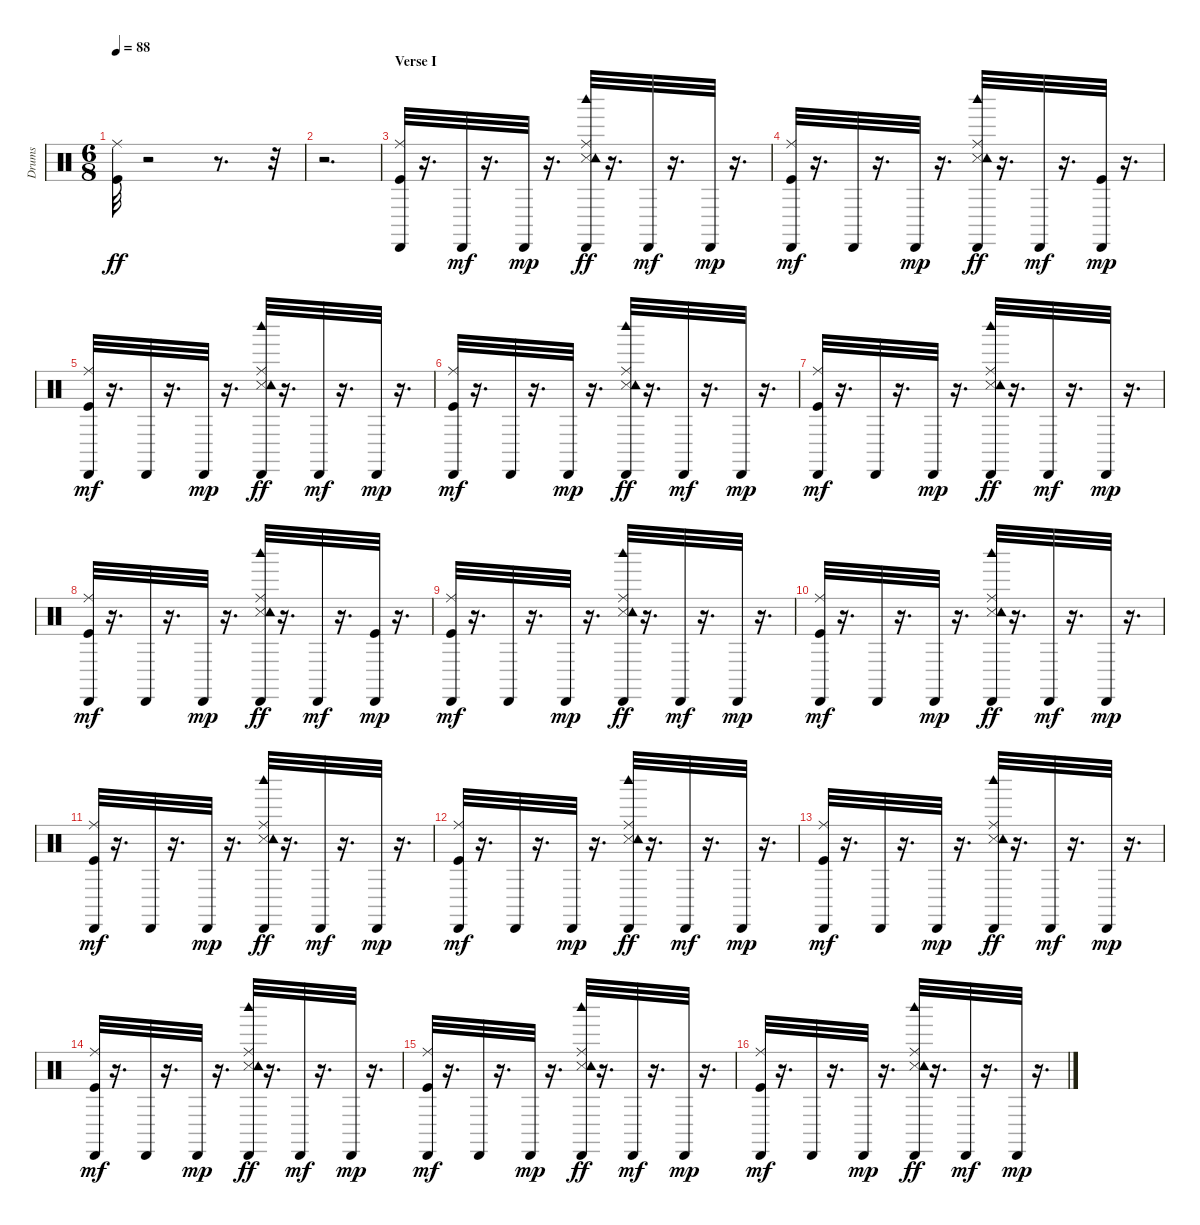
\track ("Drums               " "Drums     ") {instrument percussion}
\staff {score}
\articulation defaults
\ts (6 8)
\tempo 88
\clef neutral
\ks c
("Kick (hit)" "Ride (middle)").32{dy ff} r.2 r.8{d} r.32 |
r.2{d} |
\section ("" "Verse I")
("Kick (hit)" "Ride (middle)" "Cabasa (hit)").32 r.16{d} "Cabasa (hit)".32{dy mf} r.16{d} "Cabasa (hit)".32{dy mp} r.16{d} ("Snare (side stick) 3" "Ride (middle)" "Tambourine (hit)" "Cabasa (hit)" "Woodblock high (hit)").32{dy ff} r.16{d} "Cabasa (hit)".32{dy mf} r.16{d} "Cabasa (hit)".32{dy mp} r.16{d} |
("Kick (hit)" "Ride (middle)" "Cabasa (hit)").32{dy mf} r.16{d} "Cabasa (hit)".32 r.16{d} "Cabasa (hit)".32{dy mp} r.16{d} ("Snare (side stick) 3" "Ride (middle)" "Tambourine (hit)" "Cabasa (hit)" "Woodblock high (hit)").32{dy ff} r.16{d} "Cabasa (hit)".32{dy mf} r.16{d} ("Kick (hit)" "Cabasa (hit)").32{dy mp} r.16{d} |
("Kick (hit)" "Ride (middle)" "Cabasa (hit)").32{dy mf} r.16{d} "Cabasa (hit)".32 r.16{d} "Cabasa (hit)".32{dy mp} r.16{d} ("Snare (side stick) 3" "Ride (middle)" "Tambourine (hit)" "Cabasa (hit)" "Woodblock high (hit)").32{dy ff} r.16{d} "Cabasa (hit)".32{dy mf} r.16{d} "Cabasa (hit)".32{dy mp} r.16{d} |
("Kick (hit)" "Ride (middle)" "Cabasa (hit)").32{dy mf} r.16{d} "Cabasa (hit)".32 r.16{d} "Cabasa (hit)".32{dy mp} r.16{d} ("Snare (side stick) 3" "Ride (middle)" "Tambourine (hit)" "Cabasa (hit)" "Woodblock high (hit)").32{dy ff} r.16{d} "Cabasa (hit)".32{dy mf} r.16{d} "Cabasa (hit)".32{dy mp} r.16{d} |
("Kick (hit)" "Ride (middle)" "Cabasa (hit)").32{dy mf} r.16{d} "Cabasa (hit)".32 r.16{d} "Cabasa (hit)".32{dy mp} r.16{d} ("Snare (side stick) 3" "Ride (middle)" "Tambourine (hit)" "Cabasa (hit)" "Woodblock high (hit)").32{dy ff} r.16{d} "Cabasa (hit)".32{dy mf} r.16{d} "Cabasa (hit)".32{dy mp} r.16{d} |
("Kick (hit)" "Ride (middle)" "Cabasa (hit)").32{dy mf} r.16{d} "Cabasa (hit)".32 r.16{d} "Cabasa (hit)".32{dy mp} r.16{d} ("Snare (side stick) 3" "Ride (middle)" "Tambourine (hit)" "Cabasa (hit)" "Woodblock high (hit)").32{dy ff} r.16{d} "Cabasa (hit)".32{dy mf} r.16{d} ("Kick (hit)" "Cabasa (hit)").32{dy mp} r.16{d} |
("Kick (hit)" "Ride (middle)" "Cabasa (hit)").32{dy mf} r.16{d} "Cabasa (hit)".32 r.16{d} "Cabasa (hit)".32{dy mp} r.16{d} ("Snare (side stick) 3" "Ride (middle)" "Tambourine (hit)" "Cabasa (hit)" "Woodblock high (hit)").32{dy ff} r.16{d} "Cabasa (hit)".32{dy mf} r.16{d} "Cabasa (hit)".32{dy mp} r.16{d} |
("Kick (hit)" "Ride (middle)" "Cabasa (hit)").32{dy mf} r.16{d} "Cabasa (hit)".32 r.16{d} "Cabasa (hit)".32{dy mp} r.16{d} ("Snare (side stick) 3" "Ride (middle)" "Tambourine (hit)" "Cabasa (hit)" "Woodblock high (hit)").32{dy ff} r.16{d} "Cabasa (hit)".32{dy mf} r.16{d} "Cabasa (hit)".32{dy mp} r.16{d} |
("Kick (hit)" "Ride (middle)" "Cabasa (hit)").32{dy mf} r.16{d} "Cabasa (hit)".32 r.16{d} "Cabasa (hit)".32{dy mp} r.16{d} ("Snare (side stick) 3" "Ride (middle)" "Tambourine (hit)" "Cabasa (hit)" "Woodblock high (hit)").32{dy ff} r.16{d} "Cabasa (hit)".32{dy mf} r.16{d} "Cabasa (hit)".32{dy mp} r.16{d} |
("Kick (hit)" "Ride (middle)" "Cabasa (hit)").32{dy mf} r.16{d} "Cabasa (hit)".32 r.16{d} "Cabasa (hit)".32{dy mp} r.16{d} ("Snare (side stick) 3" "Ride (middle)" "Tambourine (hit)" "Cabasa (hit)" "Woodblock high (hit)").32{dy ff} r.16{d} "Cabasa (hit)".32{dy mf} r.16{d} "Cabasa (hit)".32{dy mp} r.16{d} |
("Kick (hit)" "Ride (middle)" "Cabasa (hit)").32{dy mf} r.16{d} "Cabasa (hit)".32 r.16{d} "Cabasa (hit)".32{dy mp} r.16{d} ("Snare (side stick) 3" "Ride (middle)" "Tambourine (hit)" "Cabasa (hit)" "Woodblock high (hit)").32{dy ff} r.16{d} "Cabasa (hit)".32{dy mf} r.16{d} "Cabasa (hit)".32{dy mp} r.16{d} |
("Kick (hit)" "Ride (middle)" "Cabasa (hit)").32{dy mf} r.16{d} "Cabasa (hit)".32 r.16{d} "Cabasa (hit)".32{dy mp} r.16{d} ("Snare (side stick) 3" "Ride (middle)" "Tambourine (hit)" "Cabasa (hit)" "Woodblock high (hit)").32{dy ff} r.16{d} "Cabasa (hit)".32{dy mf} r.16{d} "Cabasa (hit)".32{dy mp} r.16{d} |
("Kick (hit)" "Ride (middle)" "Cabasa (hit)").32{dy mf} r.16{d} "Cabasa (hit)".32 r.16{d} "Cabasa (hit)".32{dy mp} r.16{d} ("Snare (side stick) 3" "Ride (middle)" "Tambourine (hit)" "Cabasa (hit)" "Woodblock high (hit)").32{dy ff} r.16{d} "Cabasa (hit)".32{dy mf} r.16{d} "Cabasa (hit)".32{dy mp} r.16{d} |
("Kick (hit)" "Ride (middle)" "Cabasa (hit)").32{dy mf} r.16{d} "Cabasa (hit)".32 r.16{d} "Cabasa (hit)".32{dy mp} r.16{d} ("Snare (side stick) 3" "Ride (middle)" "Tambourine (hit)" "Cabasa (hit)" "Woodblock high (hit)").32{dy ff} r.16{d} "Cabasa (hit)".32{dy mf} r.16{d} "Cabasa (hit)".32{dy mp} r.16{d}
